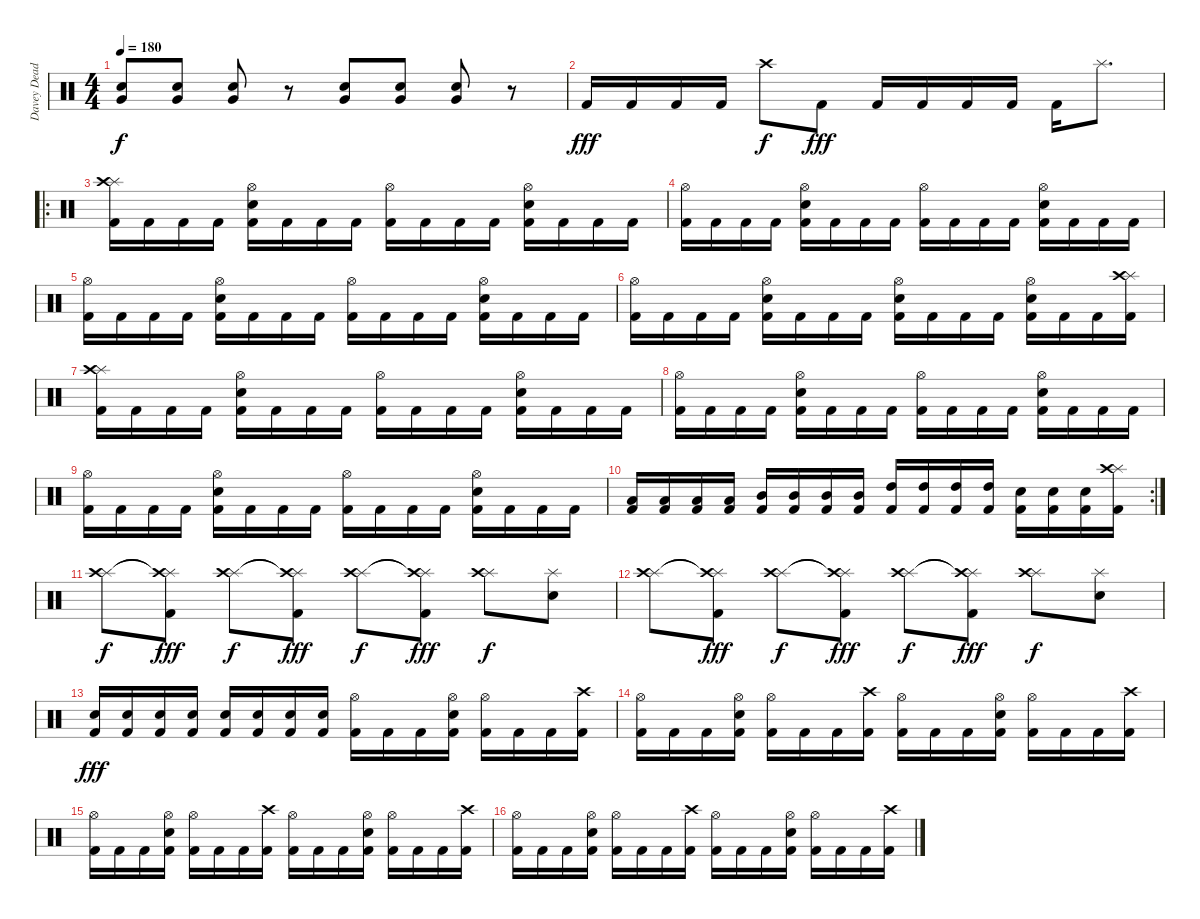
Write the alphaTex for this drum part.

\track ("Davey Dead" "Davey Dead") {instrument percussion}
\staff {score}
\articulation defaults
\ts (4 4)
\tempo 180
\clef neutral
\ks c
("Very Low Tom (hit)" "Electric Snare (hit)").8{dy f} ("Very Low Tom (hit)" "Electric Snare (hit)").8 ("Very Low Tom (hit)" "Electric Snare (hit)").8 r.8 ("Very Low Tom (hit)" "Electric Snare (hit)").8 ("Very Low Tom (hit)" "Electric Snare (hit)").8 ("Very Low Tom (hit)" "Electric Snare (hit)").8 r.8 |
"Kick (hit) 2".16{dy fff} "Kick (hit) 2".16 "Kick (hit) 2".16 "Kick (hit) 2".16 "Crash high (hit)".8{dy f} "Kick (hit) 2".8{dy fff} "Kick (hit) 2".16 "Kick (hit) 2".16 "Kick (hit) 2".16 "Kick (hit) 2".16 "Kick (hit) 2".16 "Splash (hit)".8{d} |
\ro
("Splash (hit)" "Crash high (hit)" "Kick (hit) 2").16 "Kick (hit) 2".16 "Kick (hit) 2".16 "Kick (hit) 2".16 ("Hi-Hat (open)" "Electric Snare (hit)" "Kick (hit) 2").16 "Kick (hit) 2".16 "Kick (hit) 2".16 "Kick (hit) 2".16 ("Hi-Hat (open)" "Kick (hit) 2").16 "Kick (hit) 2".16 "Kick (hit) 2".16 "Kick (hit) 2".16 ("Hi-Hat (open)" "Electric Snare (hit)" "Kick (hit) 2").16 "Kick (hit) 2".16 "Kick (hit) 2".16 "Kick (hit) 2".16 |
("Hi-Hat (open)" "Kick (hit) 2").16 "Kick (hit) 2".16 "Kick (hit) 2".16 "Kick (hit) 2".16 ("Hi-Hat (open)" "Electric Snare (hit)" "Kick (hit) 2").16 "Kick (hit) 2".16 "Kick (hit) 2".16 "Kick (hit) 2".16 ("Hi-Hat (open)" "Kick (hit) 2").16 "Kick (hit) 2".16 "Kick (hit) 2".16 "Kick (hit) 2".16 ("Hi-Hat (open)" "Electric Snare (hit)" "Kick (hit) 2").16 "Kick (hit) 2".16 "Kick (hit) 2".16 "Kick (hit) 2".16 |
("Hi-Hat (open)" "Kick (hit) 2").16 "Kick (hit) 2".16 "Kick (hit) 2".16 "Kick (hit) 2".16 ("Hi-Hat (open)" "Electric Snare (hit)" "Kick (hit) 2").16 "Kick (hit) 2".16 "Kick (hit) 2".16 "Kick (hit) 2".16 ("Hi-Hat (open)" "Kick (hit) 2").16 "Kick (hit) 2".16 "Kick (hit) 2".16 "Kick (hit) 2".16 ("Hi-Hat (open)" "Electric Snare (hit)" "Kick (hit) 2").16 "Kick (hit) 2".16 "Kick (hit) 2".16 "Kick (hit) 2".16 |
("Hi-Hat (open)" "Kick (hit) 2").16 "Kick (hit) 2".16 "Kick (hit) 2".16 "Kick (hit) 2".16 ("Hi-Hat (open)" "Electric Snare (hit)" "Kick (hit) 2").16 "Kick (hit) 2".16 "Kick (hit) 2".16 "Kick (hit) 2".16 ("Hi-Hat (open)" "Electric Snare (hit)" "Kick (hit) 2").16 "Kick (hit) 2".16 "Kick (hit) 2".16 "Kick (hit) 2".16 ("Hi-Hat (open)" "Electric Snare (hit)" "Kick (hit) 2").16 "Kick (hit) 2".16 "Kick (hit) 2".16 ("Splash (hit)" "Crash high (hit)" "Kick (hit) 2").16 |
("Splash (hit)" "Crash high (hit)" "Kick (hit) 2").16 "Kick (hit) 2".16 "Kick (hit) 2".16 "Kick (hit) 2".16 ("Hi-Hat (open)" "Electric Snare (hit)" "Kick (hit) 2").16 "Kick (hit) 2".16 "Kick (hit) 2".16 "Kick (hit) 2".16 ("Hi-Hat (open)" "Kick (hit) 2").16 "Kick (hit) 2".16 "Kick (hit) 2".16 "Kick (hit) 2".16 ("Hi-Hat (open)" "Electric Snare (hit)" "Kick (hit) 2").16 "Kick (hit) 2".16 "Kick (hit) 2".16 "Kick (hit) 2".16 |
("Hi-Hat (open)" "Kick (hit) 2").16 "Kick (hit) 2".16 "Kick (hit) 2".16 "Kick (hit) 2".16 ("Hi-Hat (open)" "Electric Snare (hit)" "Kick (hit) 2").16 "Kick (hit) 2".16 "Kick (hit) 2".16 "Kick (hit) 2".16 ("Hi-Hat (open)" "Kick (hit) 2").16 "Kick (hit) 2".16 "Kick (hit) 2".16 "Kick (hit) 2".16 ("Hi-Hat (open)" "Electric Snare (hit)" "Kick (hit) 2").16 "Kick (hit) 2".16 "Kick (hit) 2".16 "Kick (hit) 2".16 |
("Hi-Hat (open)" "Kick (hit) 2").16 "Kick (hit) 2".16 "Kick (hit) 2".16 "Kick (hit) 2".16 ("Hi-Hat (open)" "Electric Snare (hit)" "Kick (hit) 2").16 "Kick (hit) 2".16 "Kick (hit) 2".16 "Kick (hit) 2".16 ("Hi-Hat (open)" "Kick (hit) 2").16 "Kick (hit) 2".16 "Kick (hit) 2".16 "Kick (hit) 2".16 ("Hi-Hat (open)" "Electric Snare (hit)" "Kick (hit) 2").16 "Kick (hit) 2".16 "Kick (hit) 2".16 "Kick (hit) 2".16 |
\rc 2
("Low Tom (hit)" "Kick (hit) 2").16 ("Low Tom (hit)" "Kick (hit) 2").16 ("Low Tom (hit)" "Kick (hit) 2").16 ("Low Tom (hit)" "Kick (hit) 2").16 ("Mid Tom (hit)" "Kick (hit) 2").16 ("Mid Tom (hit)" "Kick (hit) 2").16 ("Mid Tom (hit)" "Kick (hit) 2").16 ("Mid Tom (hit)" "Kick (hit) 2").16 ("High Tom (hit)" "Kick (hit) 2").16 ("High Tom (hit)" "Kick (hit) 2").16 ("High Tom (hit)" "Kick (hit) 2").16 ("High Tom (hit)" "Kick (hit) 2").16 ("Electric Snare (hit)" "Kick (hit) 2").16 ("Electric Snare (hit)" "Kick (hit) 2").16 ("Electric Snare (hit)" "Kick (hit) 2").16 ("Splash (hit)" "Crash high (hit)" "Kick (hit) 2").16 |
("Splash (hit)" "Crash high (hit)").8{dy f} ("Splash (hit)"{t} "Crash high (hit)"{t} "Kick (hit) 2").8{dy fff} ("Splash (hit)" "Crash high (hit)").8{dy f} ("Splash (hit)"{t} "Crash high (hit)"{t} "Kick (hit) 2").8{dy fff} ("Splash (hit)" "Crash high (hit)").8{dy f} ("Splash (hit)"{t} "Crash high (hit)"{t} "Kick (hit) 2").8{dy fff} ("Splash (hit)" "Crash high (hit)").8{dy f} ("Splash (hit)" "Electric Snare (hit)").8 |
("Splash (hit)" "Crash high (hit)").8 ("Splash (hit)"{t} "Crash high (hit)"{t} "Kick (hit) 2").8{dy fff} ("Splash (hit)" "Crash high (hit)").8{dy f} ("Splash (hit)"{t} "Crash high (hit)"{t} "Kick (hit) 2").8{dy fff} ("Splash (hit)" "Crash high (hit)").8{dy f} ("Splash (hit)"{t} "Crash high (hit)"{t} "Kick (hit) 2").8{dy fff} ("Splash (hit)" "Crash high (hit)").8{dy f} ("Splash (hit)" "Electric Snare (hit)").8 |
("Electric Snare (hit)" "Kick (hit) 2").16{dy fff} ("Electric Snare (hit)" "Kick (hit) 2").16 ("Electric Snare (hit)" "Kick (hit) 2").16 ("Electric Snare (hit)" "Kick (hit) 2").16 ("Electric Snare (hit)" "Kick (hit) 2").16 ("Electric Snare (hit)" "Kick (hit) 2").16 ("Electric Snare (hit)" "Kick (hit) 2").16 ("Electric Snare (hit)" "Kick (hit) 2").16 ("Hi-Hat (open)" "Kick (hit) 2").16 "Kick (hit) 2".16 "Kick (hit) 2".16 ("Hi-Hat (open)" "Electric Snare (hit)" "Kick (hit) 2").16 ("Hi-Hat (open)" "Kick (hit) 2").16 "Kick (hit) 2".16 "Kick (hit) 2".16 ("Crash high (hit)" "Kick (hit) 2").16 |
("Hi-Hat (open)" "Kick (hit) 2").16 "Kick (hit) 2".16 "Kick (hit) 2".16 ("Hi-Hat (open)" "Electric Snare (hit)" "Kick (hit) 2").16 ("Hi-Hat (open)" "Kick (hit) 2").16 "Kick (hit) 2".16 "Kick (hit) 2".16 ("Crash high (hit)" "Kick (hit) 2").16 ("Hi-Hat (open)" "Kick (hit) 2").16 "Kick (hit) 2".16 "Kick (hit) 2".16 ("Hi-Hat (open)" "Electric Snare (hit)" "Kick (hit) 2").16 ("Hi-Hat (open)" "Kick (hit) 2").16 "Kick (hit) 2".16 "Kick (hit) 2".16 ("Crash high (hit)" "Kick (hit) 2").16 |
("Hi-Hat (open)" "Kick (hit) 2").16 "Kick (hit) 2".16 "Kick (hit) 2".16 ("Hi-Hat (open)" "Electric Snare (hit)" "Kick (hit) 2").16 ("Hi-Hat (open)" "Kick (hit) 2").16 "Kick (hit) 2".16 "Kick (hit) 2".16 ("Crash high (hit)" "Kick (hit) 2").16 ("Hi-Hat (open)" "Kick (hit) 2").16 "Kick (hit) 2".16 "Kick (hit) 2".16 ("Hi-Hat (open)" "Electric Snare (hit)" "Kick (hit) 2").16 ("Hi-Hat (open)" "Kick (hit) 2").16 "Kick (hit) 2".16 "Kick (hit) 2".16 ("Crash high (hit)" "Kick (hit) 2").16 |
("Hi-Hat (open)" "Kick (hit) 2").16 "Kick (hit) 2".16 "Kick (hit) 2".16 ("Hi-Hat (open)" "Electric Snare (hit)" "Kick (hit) 2").16 ("Hi-Hat (open)" "Kick (hit) 2").16 "Kick (hit) 2".16 "Kick (hit) 2".16 ("Crash high (hit)" "Kick (hit) 2").16 ("Hi-Hat (open)" "Kick (hit) 2").16 "Kick (hit) 2".16 "Kick (hit) 2".16 ("Hi-Hat (open)" "Electric Snare (hit)" "Kick (hit) 2").16 ("Hi-Hat (open)" "Kick (hit) 2").16 "Kick (hit) 2".16 "Kick (hit) 2".16 ("Crash high (hit)" "Kick (hit) 2").16
